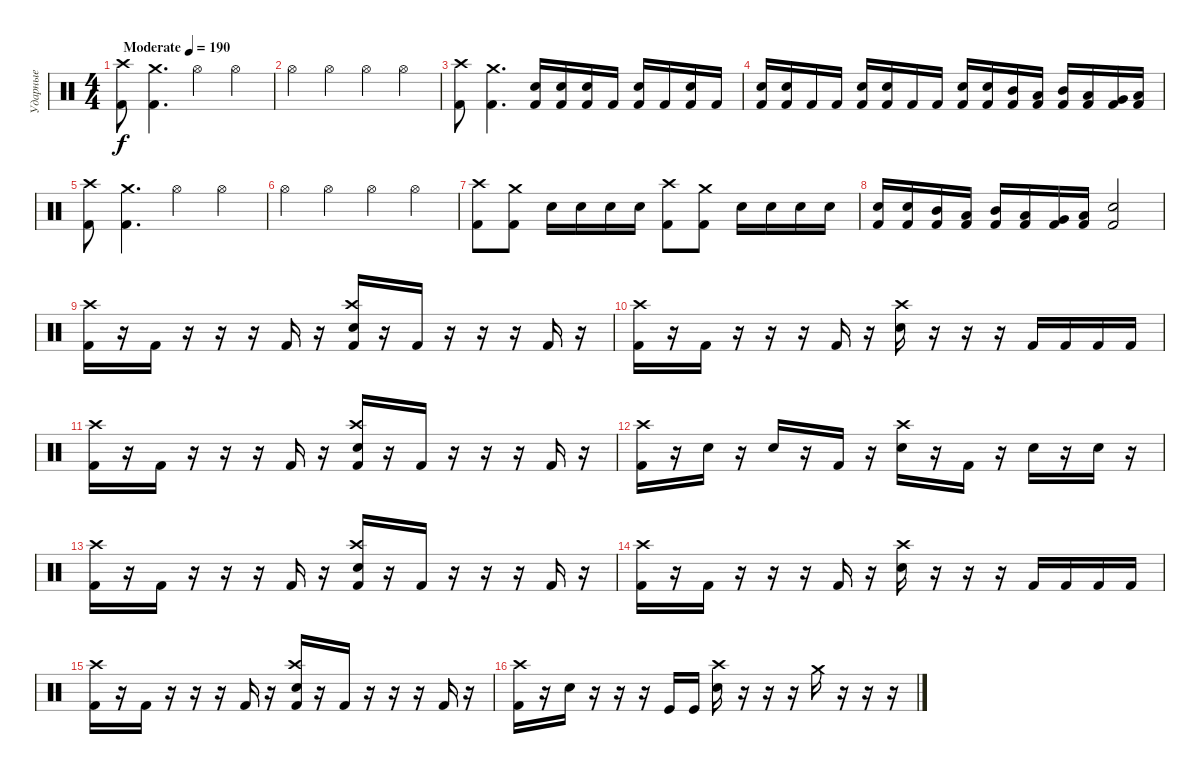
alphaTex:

\track ("Ударные" "Ударные") {instrument percussion}
\staff {score}
\articulation defaults
\ts (4 4)
\tempo (190 "Moderate")
\clef neutral
\ks c
("Kick (hit) 2" "Crash high (hit)").8{dy f} ("Crash medium (hit)" "Kick (hit) 2").4{d} "Hi-Hat (open)".4 "Hi-Hat (open)".4 |
"Hi-Hat (open)".4 "Hi-Hat (open)".4 "Hi-Hat (open)".4 "Hi-Hat (open)".4 |
("Kick (hit) 2" "Crash high (hit)").8 ("Crash medium (hit)" "Kick (hit) 2").4{d} ("Snare (hit) 2" "Kick (hit) 2").16 ("Snare (hit) 2" "Kick (hit) 2").16 ("Snare (hit) 2" "Kick (hit) 2").16 "Kick (hit) 2".16 ("Snare (hit) 2" "Kick (hit) 2").16 "Kick (hit) 2".16 ("Snare (hit) 2" "Kick (hit) 2").16 "Kick (hit) 2".16 |
("Snare (hit) 2" "Kick (hit) 2").16 ("Snare (hit) 2" "Kick (hit) 2").16 "Kick (hit) 2".16 "Kick (hit) 2".16 ("Snare (hit) 2" "Kick (hit) 2").16 ("Snare (hit) 2" "Kick (hit) 2").16 "Kick (hit) 2".16 "Kick (hit) 2".16 ("Snare (hit) 2" "Kick (hit) 2").16 ("Snare (hit) 2" "Kick (hit) 2").16 ("Mid Tom (hit)" "Kick (hit) 2").16 ("Low Tom (hit)" "Kick (hit) 2").16 ("Mid Tom (hit)" "Kick (hit) 2").16 ("Low Tom (hit)" "Kick (hit) 2").16 ("Very Low Tom (hit)" "Kick (hit) 2").16 ("Low Floor Tom (hit)" "Kick (hit) 2").16 |
("Kick (hit) 2" "Crash high (hit)").8 ("Crash medium (hit)" "Kick (hit) 2").4{d} "Hi-Hat (open)".4 "Hi-Hat (open)".4 |
"Hi-Hat (open)".4 "Hi-Hat (open)".4 "Hi-Hat (open)".4 "Hi-Hat (open)".4 |
("Kick (hit) 2" "Crash high (hit)").8 ("Crash medium (hit)" "Kick (hit) 2").8 "Snare (hit) 2".16 "Snare (hit) 2".16 "Snare (hit) 2".16 "Snare (hit) 2".16 ("Kick (hit) 2" "Crash high (hit)").8 ("Crash medium (hit)" "Kick (hit) 2").8 "Snare (hit) 2".16 "Snare (hit) 2".16 "Snare (hit) 2".16 "Snare (hit) 2".16 |
("Snare (hit) 2" "Kick (hit) 2").16 ("Snare (hit) 2" "Kick (hit) 2").16 ("Mid Tom (hit)" "Kick (hit) 2").16 ("Low Tom (hit)" "Kick (hit) 2").16 ("Mid Tom (hit)" "Kick (hit) 2").16 ("Low Tom (hit)" "Kick (hit) 2").16 ("Very Low Tom (hit)" "Kick (hit) 2").16 ("Low Floor Tom (hit)" "Kick (hit) 2").16 ("Snare (hit) 2" "Kick (hit) 2").2 |
("Crash high (hit)" "Kick (hit) 2").16 r.16 "Kick (hit) 2".16 r.16 r.16 r.16 "Kick (hit) 2".16 r.16 ("Snare (hit) 2" "Kick (hit) 2" "Crash high (hit)").16 r.16 "Kick (hit) 2".16 r.16 r.16 r.16 "Kick (hit) 2".16 r.16 |
("Crash high (hit)" "Kick (hit) 2").16 r.16 "Kick (hit) 2".16 r.16 r.16 r.16 "Kick (hit) 2".16 r.16 ("Snare (hit) 2" "Crash high (hit)").16 r.16 r.16 r.16 "Kick (hit) 2".16 "Kick (hit) 2".16 "Kick (hit) 2".16 "Kick (hit) 2".16 |
("Crash high (hit)" "Kick (hit) 2").16 r.16 "Kick (hit) 2".16 r.16 r.16 r.16 "Kick (hit) 2".16 r.16 ("Snare (hit) 2" "Kick (hit) 2" "Crash high (hit)").16 r.16 "Kick (hit) 2".16 r.16 r.16 r.16 "Kick (hit) 2".16 r.16 |
("Crash high (hit)" "Kick (hit) 2").16 r.16 "Snare (hit) 2".16 r.16 "Snare (hit) 2".16 r.16 "Kick (hit) 2".16 r.16 ("Snare (hit) 2" "Crash high (hit)").16 r.16 "Kick (hit) 2".16 r.16 "Snare (hit) 2".16 r.16 "Snare (hit) 2".16 r.16 |
("Crash high (hit)" "Kick (hit) 2").16 r.16 "Kick (hit) 2".16 r.16 r.16 r.16 "Kick (hit) 2".16 r.16 ("Snare (hit) 2" "Kick (hit) 2" "Crash high (hit)").16 r.16 "Kick (hit) 2".16 r.16 r.16 r.16 "Kick (hit) 2".16 r.16 |
("Crash high (hit)" "Kick (hit) 2").16 r.16 "Kick (hit) 2".16 r.16 r.16 r.16 "Kick (hit) 2".16 r.16 ("Snare (hit) 2" "Crash high (hit)").16 r.16 r.16 r.16 "Kick (hit) 2".16 "Kick (hit) 2".16 "Kick (hit) 2".16 "Kick (hit) 2".16 |
("Crash high (hit)" "Kick (hit) 2").16 r.16 "Kick (hit) 2".16 r.16 r.16 r.16 "Kick (hit) 2".16 r.16 ("Snare (hit) 2" "Kick (hit) 2" "Crash high (hit)").16 r.16 "Kick (hit) 2".16 r.16 r.16 r.16 "Kick (hit) 2".16 r.16 |
("Crash high (hit)" "Kick (hit) 2").16 r.16 "Snare (hit) 2".16 r.16 r.16 r.16 "Kick (hit)".16 "Kick (hit)".16 ("Crash high (hit)" "Snare (hit) 2").16 r.16 r.16 r.16 "Crash medium (hit)".16 r.16 r.16 r.16
